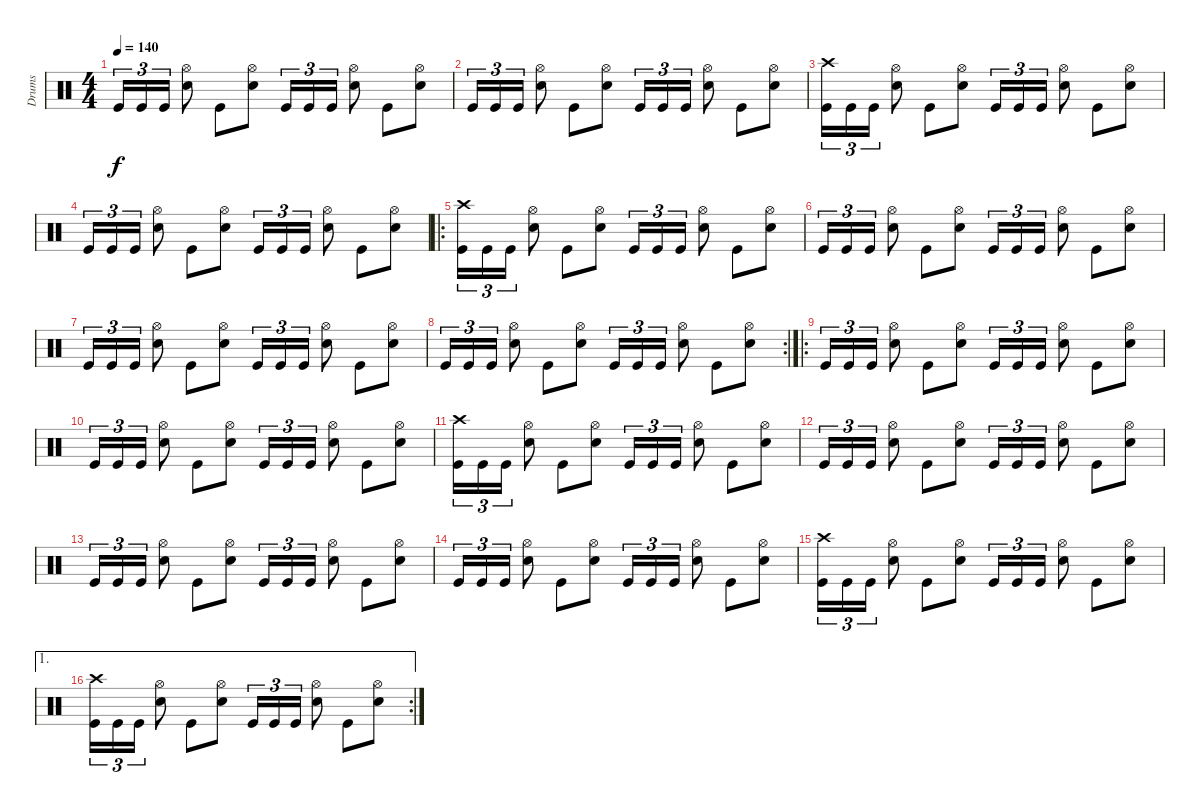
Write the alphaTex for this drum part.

\track ("Drums" "Drums") {instrument percussion}
\staff {score}
\articulation defaults
\ts (4 4)
\tempo 140
\clef neutral
\ks c "Kick (hit)".16{tu (3 2) dy f} "Kick (hit)".16{tu (3 2)} "Kick (hit)".16{tu (3 2)}
("Electric Snare (hit)" "Hi-Hat (open)").8 "Kick (hit)".8 ("Electric Snare (hit)" "Hi-Hat (open)").8 "Kick (hit)".16{tu (3 2)} "Kick (hit)".16{tu (3 2)} "Kick (hit)".16{tu (3 2)} ("Electric Snare (hit)" "Hi-Hat (open)").8 "Kick (hit)".8 ("Electric Snare (hit)" "Hi-Hat (open)").8 |
"Kick (hit)".16{tu (3 2)} "Kick (hit)".16{tu (3 2)} "Kick (hit)".16{tu (3 2)} ("Electric Snare (hit)" "Hi-Hat (open)").8 "Kick (hit)".8 ("Electric Snare (hit)" "Hi-Hat (open)").8 "Kick (hit)".16{tu (3 2)} "Kick (hit)".16{tu (3 2)} "Kick (hit)".16{tu (3 2)} ("Electric Snare (hit)" "Hi-Hat (open)").8 "Kick (hit)".8 ("Electric Snare (hit)" "Hi-Hat (open)").8 |
("Kick (hit)" "Crash high (hit)").16{tu (3 2)} "Kick (hit)".16{tu (3 2)} "Kick (hit)".16{tu (3 2)} ("Electric Snare (hit)" "Hi-Hat (open)").8 "Kick (hit)".8 ("Electric Snare (hit)" "Hi-Hat (open)").8 "Kick (hit)".16{tu (3 2)} "Kick (hit)".16{tu (3 2)} "Kick (hit)".16{tu (3 2)} ("Electric Snare (hit)" "Hi-Hat (open)").8 "Kick (hit)".8 ("Electric Snare (hit)" "Hi-Hat (open)").8 |
"Kick (hit)".16{tu (3 2)} "Kick (hit)".16{tu (3 2)} "Kick (hit)".16{tu (3 2)} ("Electric Snare (hit)" "Hi-Hat (open)").8 "Kick (hit)".8 ("Electric Snare (hit)" "Hi-Hat (open)").8 "Kick (hit)".16{tu (3 2)} "Kick (hit)".16{tu (3 2)} "Kick (hit)".16{tu (3 2)} ("Electric Snare (hit)" "Hi-Hat (open)").8 "Kick (hit)".8 ("Electric Snare (hit)" "Hi-Hat (open)").8 |
\ro
("Kick (hit)" "Crash high (hit)").16{tu (3 2)} "Kick (hit)".16{tu (3 2)} "Kick (hit)".16{tu (3 2)} ("Electric Snare (hit)" "Hi-Hat (open)").8 "Kick (hit)".8 ("Electric Snare (hit)" "Hi-Hat (open)").8 "Kick (hit)".16{tu (3 2)} "Kick (hit)".16{tu (3 2)} "Kick (hit)".16{tu (3 2)} ("Electric Snare (hit)" "Hi-Hat (open)").8 "Kick (hit)".8 ("Electric Snare (hit)" "Hi-Hat (open)").8 |
"Kick (hit)".16{tu (3 2)} "Kick (hit)".16{tu (3 2)} "Kick (hit)".16{tu (3 2)} ("Electric Snare (hit)" "Hi-Hat (open)").8 "Kick (hit)".8 ("Electric Snare (hit)" "Hi-Hat (open)").8 "Kick (hit)".16{tu (3 2)} "Kick (hit)".16{tu (3 2)} "Kick (hit)".16{tu (3 2)} ("Electric Snare (hit)" "Hi-Hat (open)").8 "Kick (hit)".8 ("Electric Snare (hit)" "Hi-Hat (open)").8 |
"Kick (hit)".16{tu (3 2)} "Kick (hit)".16{tu (3 2)} "Kick (hit)".16{tu (3 2)} ("Electric Snare (hit)" "Hi-Hat (open)").8 "Kick (hit)".8 ("Electric Snare (hit)" "Hi-Hat (open)").8 "Kick (hit)".16{tu (3 2)} "Kick (hit)".16{tu (3 2)} "Kick (hit)".16{tu (3 2)} ("Electric Snare (hit)" "Hi-Hat (open)").8 "Kick (hit)".8 ("Electric Snare (hit)" "Hi-Hat (open)").8 |
\rc 2 "Kick (hit)".16{tu (3 2)} "Kick (hit)".16{tu (3 2)} "Kick (hit)".16{tu (3 2)}
("Electric Snare (hit)" "Hi-Hat (open)").8 "Kick (hit)".8 ("Electric Snare (hit)" "Hi-Hat (open)").8 "Kick (hit)".16{tu (3 2)} "Kick (hit)".16{tu (3 2)} "Kick (hit)".16{tu (3 2)} ("Electric Snare (hit)" "Hi-Hat (open)").8 "Kick (hit)".8 ("Electric Snare (hit)" "Hi-Hat (open)").8 |
\ro "Kick (hit)".16{tu (3 2)} "Kick (hit)".16{tu (3 2)} "Kick (hit)".16{tu (3 2)}
("Electric Snare (hit)" "Hi-Hat (open)").8 "Kick (hit)".8 ("Electric Snare (hit)" "Hi-Hat (open)").8 "Kick (hit)".16{tu (3 2)} "Kick (hit)".16{tu (3 2)} "Kick (hit)".16{tu (3 2)} ("Electric Snare (hit)" "Hi-Hat (open)").8 "Kick (hit)".8 ("Electric Snare (hit)" "Hi-Hat (open)").8 |
"Kick (hit)".16{tu (3 2)} "Kick (hit)".16{tu (3 2)} "Kick (hit)".16{tu (3 2)} ("Electric Snare (hit)" "Hi-Hat (open)").8 "Kick (hit)".8 ("Electric Snare (hit)" "Hi-Hat (open)").8 "Kick (hit)".16{tu (3 2)} "Kick (hit)".16{tu (3 2)} "Kick (hit)".16{tu (3 2)} ("Electric Snare (hit)" "Hi-Hat (open)").8 "Kick (hit)".8 ("Electric Snare (hit)" "Hi-Hat (open)").8 |
("Kick (hit)" "Crash high (hit)").16{tu (3 2)} "Kick (hit)".16{tu (3 2)} "Kick (hit)".16{tu (3 2)} ("Electric Snare (hit)" "Hi-Hat (open)").8 "Kick (hit)".8 ("Electric Snare (hit)" "Hi-Hat (open)").8 "Kick (hit)".16{tu (3 2)} "Kick (hit)".16{tu (3 2)} "Kick (hit)".16{tu (3 2)} ("Electric Snare (hit)" "Hi-Hat (open)").8 "Kick (hit)".8 ("Electric Snare (hit)" "Hi-Hat (open)").8 |
"Kick (hit)".16{tu (3 2)} "Kick (hit)".16{tu (3 2)} "Kick (hit)".16{tu (3 2)} ("Electric Snare (hit)" "Hi-Hat (open)").8 "Kick (hit)".8 ("Electric Snare (hit)" "Hi-Hat (open)").8 "Kick (hit)".16{tu (3 2)} "Kick (hit)".16{tu (3 2)} "Kick (hit)".16{tu (3 2)} ("Electric Snare (hit)" "Hi-Hat (open)").8 "Kick (hit)".8 ("Electric Snare (hit)" "Hi-Hat (open)").8 |
"Kick (hit)".16{tu (3 2)} "Kick (hit)".16{tu (3 2)} "Kick (hit)".16{tu (3 2)} ("Electric Snare (hit)" "Hi-Hat (open)").8 "Kick (hit)".8 ("Electric Snare (hit)" "Hi-Hat (open)").8 "Kick (hit)".16{tu (3 2)} "Kick (hit)".16{tu (3 2)} "Kick (hit)".16{tu (3 2)} ("Electric Snare (hit)" "Hi-Hat (open)").8 "Kick (hit)".8 ("Electric Snare (hit)" "Hi-Hat (open)").8 |
"Kick (hit)".16{tu (3 2)} "Kick (hit)".16{tu (3 2)} "Kick (hit)".16{tu (3 2)} ("Electric Snare (hit)" "Hi-Hat (open)").8 "Kick (hit)".8 ("Electric Snare (hit)" "Hi-Hat (open)").8 "Kick (hit)".16{tu (3 2)} "Kick (hit)".16{tu (3 2)} "Kick (hit)".16{tu (3 2)} ("Electric Snare (hit)" "Hi-Hat (open)").8 "Kick (hit)".8 ("Electric Snare (hit)" "Hi-Hat (open)").8 |
("Kick (hit)" "Crash high (hit)").16{tu (3 2)} "Kick (hit)".16{tu (3 2)} "Kick (hit)".16{tu (3 2)} ("Electric Snare (hit)" "Hi-Hat (open)").8 "Kick (hit)".8 ("Electric Snare (hit)" "Hi-Hat (open)").8 "Kick (hit)".16{tu (3 2)} "Kick (hit)".16{tu (3 2)} "Kick (hit)".16{tu (3 2)} ("Electric Snare (hit)" "Hi-Hat (open)").8 "Kick (hit)".8 ("Electric Snare (hit)" "Hi-Hat (open)").8 |
\ae 1
\rc 2
("Kick (hit)" "Crash high (hit)").16{tu (3 2)} "Kick (hit)".16{tu (3 2)} "Kick (hit)".16{tu (3 2)} ("Electric Snare (hit)" "Hi-Hat (open)").8 "Kick (hit)".8 ("Electric Snare (hit)" "Hi-Hat (open)").8 "Kick (hit)".16{tu (3 2)} "Kick (hit)".16{tu (3 2)} "Kick (hit)".16{tu (3 2)} ("Electric Snare (hit)" "Hi-Hat (open)").8 "Kick (hit)".8 ("Electric Snare (hit)" "Hi-Hat (open)").8
